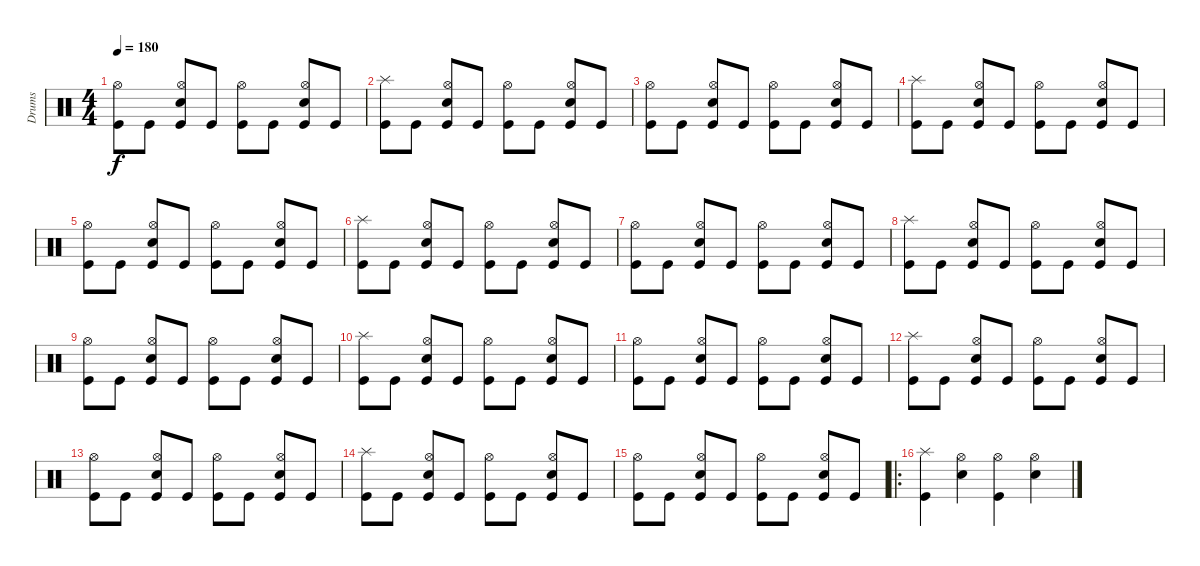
\track ("Drums" "Drums") {instrument percussion}
\staff {score}
\articulation defaults
\ts (4 4)
\tempo 180
\clef neutral
\ks c
("Kick (hit)" "Hi-Hat (open)").8{dy f} "Kick (hit)".8 ("Kick (hit)" "Electric Snare (hit)" "Hi-Hat (open)").8 "Kick (hit)".8 ("Kick (hit)" "Hi-Hat (open)").8 "Kick (hit)".8 ("Kick (hit)" "Electric Snare (hit)" "Hi-Hat (open)").8 "Kick (hit)".8 |
("Kick (hit)" "Splash (hit)").8 "Kick (hit)".8 ("Kick (hit)" "Electric Snare (hit)" "Hi-Hat (open)").8 "Kick (hit)".8 ("Kick (hit)" "Hi-Hat (open)").8 "Kick (hit)".8 ("Kick (hit)" "Electric Snare (hit)" "Hi-Hat (open)").8 "Kick (hit)".8 |
("Kick (hit)" "Hi-Hat (open)").8 "Kick (hit)".8 ("Kick (hit)" "Electric Snare (hit)" "Hi-Hat (open)").8 "Kick (hit)".8 ("Kick (hit)" "Hi-Hat (open)").8 "Kick (hit)".8 ("Kick (hit)" "Electric Snare (hit)" "Hi-Hat (open)").8 "Kick (hit)".8 |
("Kick (hit)" "Splash (hit)").8 "Kick (hit)".8 ("Kick (hit)" "Electric Snare (hit)" "Hi-Hat (open)").8 "Kick (hit)".8 ("Kick (hit)" "Hi-Hat (open)").8 "Kick (hit)".8 ("Kick (hit)" "Electric Snare (hit)" "Hi-Hat (open)").8 "Kick (hit)".8 |
("Kick (hit)" "Hi-Hat (open)").8 "Kick (hit)".8 ("Kick (hit)" "Electric Snare (hit)" "Hi-Hat (open)").8 "Kick (hit)".8 ("Kick (hit)" "Hi-Hat (open)").8 "Kick (hit)".8 ("Kick (hit)" "Electric Snare (hit)" "Hi-Hat (open)").8 "Kick (hit)".8 |
("Kick (hit)" "Splash (hit)").8 "Kick (hit)".8 ("Kick (hit)" "Electric Snare (hit)" "Hi-Hat (open)").8 "Kick (hit)".8 ("Kick (hit)" "Hi-Hat (open)").8 "Kick (hit)".8 ("Kick (hit)" "Electric Snare (hit)" "Hi-Hat (open)").8 "Kick (hit)".8 |
("Kick (hit)" "Hi-Hat (open)").8 "Kick (hit)".8 ("Kick (hit)" "Electric Snare (hit)" "Hi-Hat (open)").8 "Kick (hit)".8 ("Kick (hit)" "Hi-Hat (open)").8 "Kick (hit)".8 ("Kick (hit)" "Electric Snare (hit)" "Hi-Hat (open)").8 "Kick (hit)".8 |
("Kick (hit)" "Splash (hit)").8 "Kick (hit)".8 ("Kick (hit)" "Electric Snare (hit)" "Hi-Hat (open)").8 "Kick (hit)".8 ("Kick (hit)" "Hi-Hat (open)").8 "Kick (hit)".8 ("Kick (hit)" "Electric Snare (hit)" "Hi-Hat (open)").8 "Kick (hit)".8 |
("Kick (hit)" "Hi-Hat (open)").8 "Kick (hit)".8 ("Kick (hit)" "Electric Snare (hit)" "Hi-Hat (open)").8 "Kick (hit)".8 ("Kick (hit)" "Hi-Hat (open)").8 "Kick (hit)".8 ("Kick (hit)" "Electric Snare (hit)" "Hi-Hat (open)").8 "Kick (hit)".8 |
("Kick (hit)" "Splash (hit)").8 "Kick (hit)".8 ("Kick (hit)" "Electric Snare (hit)" "Hi-Hat (open)").8 "Kick (hit)".8 ("Kick (hit)" "Hi-Hat (open)").8 "Kick (hit)".8 ("Kick (hit)" "Electric Snare (hit)" "Hi-Hat (open)").8 "Kick (hit)".8 |
("Kick (hit)" "Hi-Hat (open)").8 "Kick (hit)".8 ("Kick (hit)" "Electric Snare (hit)" "Hi-Hat (open)").8 "Kick (hit)".8 ("Kick (hit)" "Hi-Hat (open)").8 "Kick (hit)".8 ("Kick (hit)" "Electric Snare (hit)" "Hi-Hat (open)").8 "Kick (hit)".8 |
("Kick (hit)" "Splash (hit)").8 "Kick (hit)".8 ("Kick (hit)" "Electric Snare (hit)" "Hi-Hat (open)").8 "Kick (hit)".8 ("Kick (hit)" "Hi-Hat (open)").8 "Kick (hit)".8 ("Kick (hit)" "Electric Snare (hit)" "Hi-Hat (open)").8 "Kick (hit)".8 |
("Kick (hit)" "Hi-Hat (open)").8 "Kick (hit)".8 ("Kick (hit)" "Electric Snare (hit)" "Hi-Hat (open)").8 "Kick (hit)".8 ("Kick (hit)" "Hi-Hat (open)").8 "Kick (hit)".8 ("Kick (hit)" "Electric Snare (hit)" "Hi-Hat (open)").8 "Kick (hit)".8 |
("Kick (hit)" "Splash (hit)").8 "Kick (hit)".8 ("Kick (hit)" "Electric Snare (hit)" "Hi-Hat (open)").8 "Kick (hit)".8 ("Kick (hit)" "Hi-Hat (open)").8 "Kick (hit)".8 ("Kick (hit)" "Electric Snare (hit)" "Hi-Hat (open)").8 "Kick (hit)".8 |
("Kick (hit)" "Hi-Hat (open)").8 "Kick (hit)".8 ("Kick (hit)" "Electric Snare (hit)" "Hi-Hat (open)").8 "Kick (hit)".8 ("Kick (hit)" "Hi-Hat (open)").8 "Kick (hit)".8 ("Kick (hit)" "Electric Snare (hit)" "Hi-Hat (open)").8 "Kick (hit)".8 |
\ro
("Kick (hit)" "Splash (hit)").4 ("Electric Snare (hit)" "Hi-Hat (open)").4 ("Kick (hit)" "Hi-Hat (open)").4 ("Electric Snare (hit)" "Hi-Hat (open)").4
